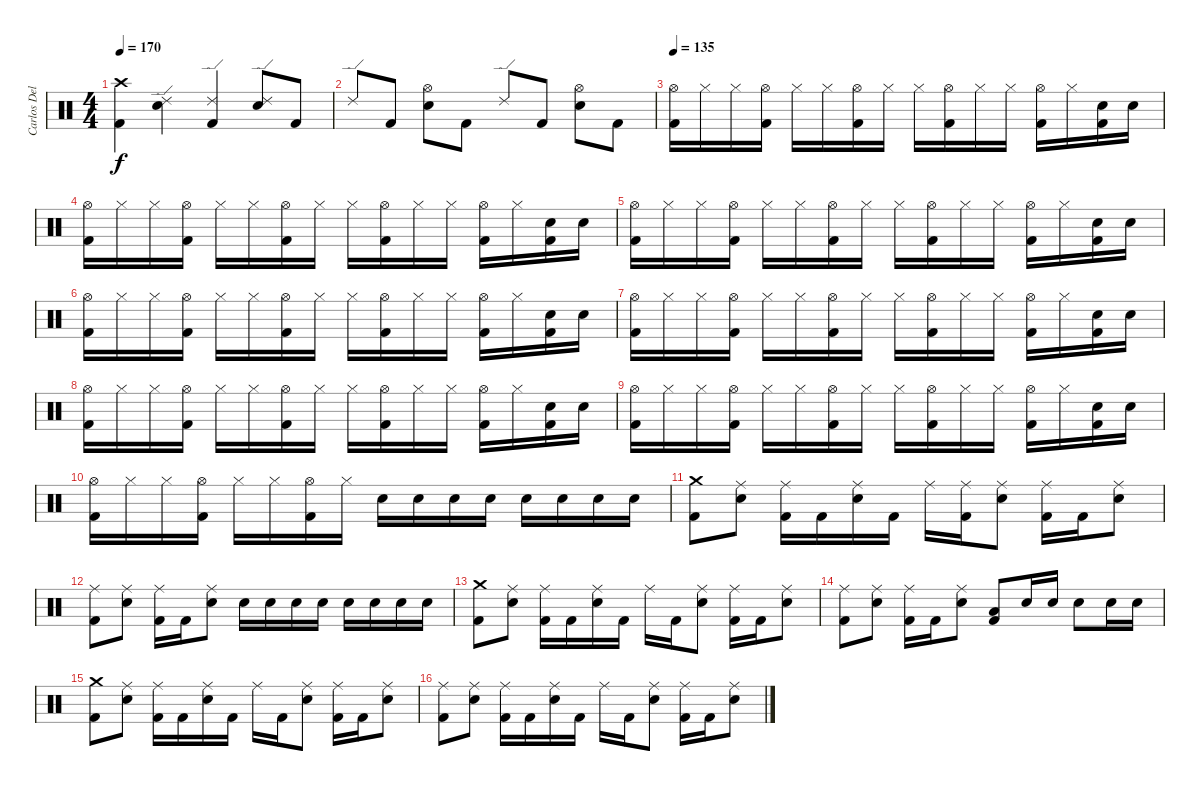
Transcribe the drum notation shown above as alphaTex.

\track ("Carlos Delgado" "Carlos Del") {instrument percussion}
\staff {score}
\articulation defaults
\ts (4 4)
\tempo 170
\clef neutral
\ks c
("Crash high (hit)" "Kick (hit) 2").4{dy f} ("Ride (edge) 2" "Electric Snare (hit)").4 ("Ride (edge) 2" "Kick (hit) 2").4 ("Ride (edge) 2" "Electric Snare (hit)").8 "Kick (hit) 2".8 |
"Ride (edge) 2".8 "Kick (hit) 2".8 ("Hi-Hat (open)" "Electric Snare (hit)").8 "Kick (hit) 2".8 "Ride (edge) 2".8 "Kick (hit) 2".8 ("Hi-Hat (open)" "Electric Snare (hit)").8 "Kick (hit) 2".8 |
\tempo 135
("Hi-Hat (open)" "Kick (hit) 2").16 "Hi-Hat (closed)".16 "Hi-Hat (closed)".16 ("Hi-Hat (open)" "Kick (hit) 2").16 "Hi-Hat (closed)".16 "Hi-Hat (closed)".16 ("Hi-Hat (open)" "Kick (hit) 2").16 "Hi-Hat (closed)".16 "Hi-Hat (closed)".16 ("Hi-Hat (open)" "Kick (hit) 2").16 "Hi-Hat (closed)".16 "Hi-Hat (closed)".16 ("Hi-Hat (open)" "Kick (hit) 2").16 "Hi-Hat (closed)".16 ("Electric Snare (hit)" "Kick (hit) 2").16 "Electric Snare (hit)".16 |
("Hi-Hat (open)" "Kick (hit) 2").16 "Hi-Hat (closed)".16 "Hi-Hat (closed)".16 ("Hi-Hat (open)" "Kick (hit) 2").16 "Hi-Hat (closed)".16 "Hi-Hat (closed)".16 ("Hi-Hat (open)" "Kick (hit) 2").16 "Hi-Hat (closed)".16 "Hi-Hat (closed)".16 ("Hi-Hat (open)" "Kick (hit) 2").16 "Hi-Hat (closed)".16 "Hi-Hat (closed)".16 ("Hi-Hat (open)" "Kick (hit) 2").16 "Hi-Hat (closed)".16 ("Electric Snare (hit)" "Kick (hit) 2").16 "Electric Snare (hit)".16 |
("Hi-Hat (open)" "Kick (hit) 2").16 "Hi-Hat (closed)".16 "Hi-Hat (closed)".16 ("Hi-Hat (open)" "Kick (hit) 2").16 "Hi-Hat (closed)".16 "Hi-Hat (closed)".16 ("Hi-Hat (open)" "Kick (hit) 2").16 "Hi-Hat (closed)".16 "Hi-Hat (closed)".16 ("Hi-Hat (open)" "Kick (hit) 2").16 "Hi-Hat (closed)".16 "Hi-Hat (closed)".16 ("Hi-Hat (open)" "Kick (hit) 2").16 "Hi-Hat (closed)".16 ("Electric Snare (hit)" "Kick (hit) 2").16 "Electric Snare (hit)".16 |
("Hi-Hat (open)" "Kick (hit) 2").16 "Hi-Hat (closed)".16 "Hi-Hat (closed)".16 ("Hi-Hat (open)" "Kick (hit) 2").16 "Hi-Hat (closed)".16 "Hi-Hat (closed)".16 ("Hi-Hat (open)" "Kick (hit) 2").16 "Hi-Hat (closed)".16 "Hi-Hat (closed)".16 ("Hi-Hat (open)" "Kick (hit) 2").16 "Hi-Hat (closed)".16 "Hi-Hat (closed)".16 ("Hi-Hat (open)" "Kick (hit) 2").16 "Hi-Hat (closed)".16 ("Electric Snare (hit)" "Kick (hit) 2").16 "Electric Snare (hit)".16 |
("Hi-Hat (open)" "Kick (hit) 2").16 "Hi-Hat (closed)".16 "Hi-Hat (closed)".16 ("Hi-Hat (open)" "Kick (hit) 2").16 "Hi-Hat (closed)".16 "Hi-Hat (closed)".16 ("Hi-Hat (open)" "Kick (hit) 2").16 "Hi-Hat (closed)".16 "Hi-Hat (closed)".16 ("Hi-Hat (open)" "Kick (hit) 2").16 "Hi-Hat (closed)".16 "Hi-Hat (closed)".16 ("Hi-Hat (open)" "Kick (hit) 2").16 "Hi-Hat (closed)".16 ("Electric Snare (hit)" "Kick (hit) 2").16 "Electric Snare (hit)".16 |
("Hi-Hat (open)" "Kick (hit) 2").16 "Hi-Hat (closed)".16 "Hi-Hat (closed)".16 ("Hi-Hat (open)" "Kick (hit) 2").16 "Hi-Hat (closed)".16 "Hi-Hat (closed)".16 ("Hi-Hat (open)" "Kick (hit) 2").16 "Hi-Hat (closed)".16 "Hi-Hat (closed)".16 ("Hi-Hat (open)" "Kick (hit) 2").16 "Hi-Hat (closed)".16 "Hi-Hat (closed)".16 ("Hi-Hat (open)" "Kick (hit) 2").16 "Hi-Hat (closed)".16 ("Electric Snare (hit)" "Kick (hit) 2").16 "Electric Snare (hit)".16 |
("Hi-Hat (open)" "Kick (hit) 2").16 "Hi-Hat (closed)".16 "Hi-Hat (closed)".16 ("Hi-Hat (open)" "Kick (hit) 2").16 "Hi-Hat (closed)".16 "Hi-Hat (closed)".16 ("Hi-Hat (open)" "Kick (hit) 2").16 "Hi-Hat (closed)".16 "Hi-Hat (closed)".16 ("Hi-Hat (open)" "Kick (hit) 2").16 "Hi-Hat (closed)".16 "Hi-Hat (closed)".16 ("Hi-Hat (open)" "Kick (hit) 2").16 "Hi-Hat (closed)".16 ("Electric Snare (hit)" "Kick (hit) 2").16 "Electric Snare (hit)".16 |
("Hi-Hat (open)" "Kick (hit) 2").16 "Hi-Hat (closed)".16 "Hi-Hat (closed)".16 ("Hi-Hat (open)" "Kick (hit) 2").16 "Hi-Hat (closed)".16 "Hi-Hat (closed)".16 ("Hi-Hat (open)" "Kick (hit) 2").16 "Hi-Hat (closed)".16 "Electric Snare (hit)".16 "Electric Snare (hit)".16 "Electric Snare (hit)".16 "Electric Snare (hit)".16 "Electric Snare (hit)".16 "Electric Snare (hit)".16 "Electric Snare (hit)".16 "Electric Snare (hit)".16 |
("Crash medium (hit)" "Kick (hit) 2").8 ("Ride (middle)" "Electric Snare (hit)").8 ("Ride (middle)" "Kick (hit) 2").16 "Kick (hit) 2".16 ("Ride (middle)" "Electric Snare (hit)").16 "Kick (hit) 2".16 "Ride (middle)".16 ("Ride (middle)" "Kick (hit) 2").16 ("Ride (middle)" "Electric Snare (hit)").8 ("Ride (middle)" "Kick (hit) 2").16 "Kick (hit) 2".16 ("Ride (middle)" "Electric Snare (hit)").8 |
("Ride (middle)" "Kick (hit) 2").8 ("Ride (middle)" "Electric Snare (hit)").8 ("Ride (middle)" "Kick (hit) 2").16 "Kick (hit) 2".16 ("Ride (middle)" "Electric Snare (hit)").8 "Electric Snare (hit)".16 "Electric Snare (hit)".16 "Electric Snare (hit)".16 "Electric Snare (hit)".16 "Electric Snare (hit)".16 "Electric Snare (hit)".16 "Electric Snare (hit)".16 "Electric Snare (hit)".16 |
("Crash medium (hit)" "Kick (hit) 2").8 ("Ride (middle)" "Electric Snare (hit)").8 ("Ride (middle)" "Kick (hit) 2").16 "Kick (hit) 2".16 ("Ride (middle)" "Electric Snare (hit)").16 "Kick (hit) 2".16 "Ride (middle)".16 "Kick (hit) 2".16 ("Ride (middle)" "Electric Snare (hit)").8 ("Ride (middle)" "Kick (hit) 2").16 "Kick (hit) 2".16 ("Ride (middle)" "Electric Snare (hit)").8 |
("Ride (middle)" "Kick (hit) 2").8 ("Ride (middle)" "Electric Snare (hit)").8 ("Ride (middle)" "Kick (hit) 2").16 "Kick (hit) 2".16 ("Ride (middle)" "Electric Snare (hit)").8 ("Low Tom (hit)" "Kick (hit) 2").8 "Electric Snare (hit)".16 "Electric Snare (hit)".16 "Electric Snare (hit)".8 "Electric Snare (hit)".16 "Electric Snare (hit)".16 |
("Crash medium (hit)" "Kick (hit) 2").8 ("Ride (middle)" "Electric Snare (hit)").8 ("Ride (middle)" "Kick (hit) 2").16 "Kick (hit) 2".16 ("Ride (middle)" "Electric Snare (hit)").16 "Kick (hit) 2".16 "Ride (middle)".16 "Kick (hit) 2".16 ("Ride (middle)" "Electric Snare (hit)").8 ("Ride (middle)" "Kick (hit) 2").16 "Kick (hit) 2".16 ("Ride (middle)" "Electric Snare (hit)").8 |
("Ride (middle)" "Kick (hit) 2").8 ("Ride (middle)" "Electric Snare (hit)").8 ("Ride (middle)" "Kick (hit) 2").16 "Kick (hit) 2".16 ("Ride (middle)" "Electric Snare (hit)").16 "Kick (hit) 2".16 "Ride (middle)".16 "Kick (hit) 2".16 ("Ride (middle)" "Electric Snare (hit)").8 ("Ride (middle)" "Kick (hit) 2").16 "Kick (hit) 2".16 ("Ride (middle)" "Electric Snare (hit)").8
